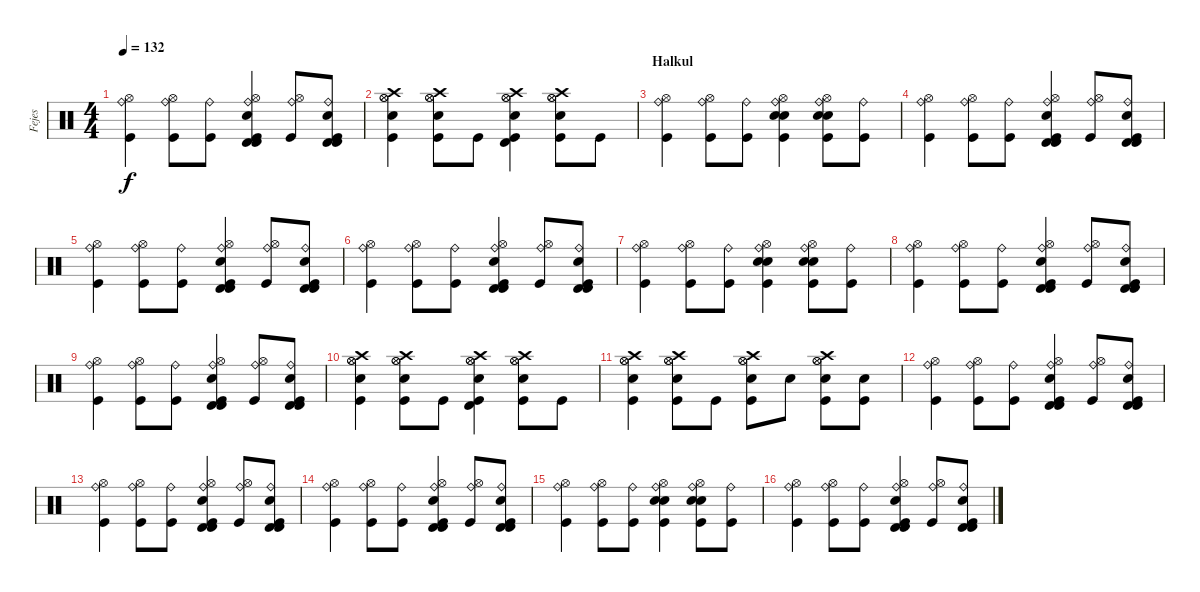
\track ("Fejes" "Fejes") {instrument percussion}
\staff {score}
\articulation defaults
\ts (4 4)
\tempo 132
\clef neutral
\ks c
("Ride (bell)" "Hi-Hat (open)" "Kick (hit)").4{dy f} ("Ride (bell)" "Hi-Hat (open)" "Kick (hit)").8 ("Ride (bell)" "Kick (hit)").8 ("Ride (bell)" "Hi-Hat (open)" "Snare (hit) 2" "Timbale high (hit)" "Timbale high (hit)" "Kick (hit)").4 ("Ride (bell)" "Hi-Hat (open)" "Kick (hit)").8 ("Ride (bell)" "Snare (hit) 2" "Timbale high (hit)" "Timbale high (hit)" "Kick (hit)").8 |
("Hi-Hat (open)" "Hi-Hat (open)" "Snare (hit) 2" "Crash high (hit)" "Kick (hit)").4 ("Hi-Hat (open)" "Hi-Hat (open)" "Snare (hit) 2" "Crash high (hit)" "Kick (hit)").8 "Kick (hit)".8 ("Hi-Hat (open)" "Hi-Hat (open)" "Snare (hit) 2" "Crash high (hit)" "Timbale high (hit)" "Kick (hit)").4 ("Hi-Hat (open)" "Hi-Hat (open)" "Snare (hit) 2" "Crash high (hit)" "Kick (hit)").8 "Kick (hit)".8 |
\section ("" "Halkul")
("Ride (bell)" "Hi-Hat (open)" "Kick (hit)").4{volume 11} ("Ride (bell)" "Hi-Hat (open)" "Kick (hit)").8 ("Ride (bell)" "Kick (hit)").8 ("Ride (bell)" "Hi-Hat (open)" "Snare (hit) 2" "Snare (hit) 2" "Kick (hit)").4 ("Ride (bell)" "Hi-Hat (open)" "Snare (hit) 2" "Snare (hit) 2" "Kick (hit)").8 ("Ride (bell)" "Kick (hit)").8 |
("Ride (bell)" "Hi-Hat (open)" "Kick (hit)").4 ("Ride (bell)" "Hi-Hat (open)" "Kick (hit)").8 ("Ride (bell)" "Kick (hit)").8 ("Ride (bell)" "Hi-Hat (open)" "Snare (hit) 2" "Timbale high (hit)" "Timbale high (hit)" "Kick (hit)").4 ("Ride (bell)" "Hi-Hat (open)" "Kick (hit)").8 ("Ride (bell)" "Snare (hit) 2" "Timbale high (hit)" "Timbale high (hit)" "Kick (hit)").8 |
("Ride (bell)" "Hi-Hat (open)" "Kick (hit)").4 ("Ride (bell)" "Hi-Hat (open)" "Kick (hit)").8 ("Ride (bell)" "Kick (hit)").8 ("Ride (bell)" "Hi-Hat (open)" "Snare (hit) 2" "Timbale high (hit)" "Timbale high (hit)" "Kick (hit)").4 ("Ride (bell)" "Hi-Hat (open)" "Kick (hit)").8 ("Ride (bell)" "Snare (hit) 2" "Timbale high (hit)" "Timbale high (hit)" "Kick (hit)").8 |
("Ride (bell)" "Hi-Hat (open)" "Kick (hit)").4{volume 8} ("Ride (bell)" "Hi-Hat (open)" "Kick (hit)").8 ("Ride (bell)" "Kick (hit)").8 ("Ride (bell)" "Hi-Hat (open)" "Snare (hit) 2" "Timbale high (hit)" "Timbale high (hit)" "Kick (hit)").4 ("Ride (bell)" "Hi-Hat (open)" "Kick (hit)").8 ("Ride (bell)" "Snare (hit) 2" "Timbale high (hit)" "Timbale high (hit)" "Kick (hit)").8 |
("Ride (bell)" "Hi-Hat (open)" "Kick (hit)").4 ("Ride (bell)" "Hi-Hat (open)" "Kick (hit)").8 ("Ride (bell)" "Kick (hit)").8 ("Ride (bell)" "Hi-Hat (open)" "Snare (hit) 2" "Snare (hit) 2" "Kick (hit)").4 ("Ride (bell)" "Hi-Hat (open)" "Snare (hit) 2" "Snare (hit) 2" "Kick (hit)").8 ("Ride (bell)" "Kick (hit)").8 |
("Ride (bell)" "Hi-Hat (open)" "Kick (hit)").4 ("Ride (bell)" "Hi-Hat (open)" "Kick (hit)").8 ("Ride (bell)" "Kick (hit)").8 ("Ride (bell)" "Hi-Hat (open)" "Snare (hit) 2" "Timbale high (hit)" "Timbale high (hit)" "Kick (hit)").4 ("Ride (bell)" "Hi-Hat (open)" "Kick (hit)").8 ("Ride (bell)" "Snare (hit) 2" "Timbale high (hit)" "Timbale high (hit)" "Kick (hit)").8 |
("Ride (bell)" "Hi-Hat (open)" "Kick (hit)").4{volume 7} ("Ride (bell)" "Hi-Hat (open)" "Kick (hit)").8 ("Ride (bell)" "Kick (hit)").8 ("Ride (bell)" "Hi-Hat (open)" "Snare (hit) 2" "Timbale high (hit)" "Timbale high (hit)" "Kick (hit)").4 ("Ride (bell)" "Hi-Hat (open)" "Kick (hit)").8 ("Ride (bell)" "Snare (hit) 2" "Timbale high (hit)" "Timbale high (hit)" "Kick (hit)").8 |
("Hi-Hat (open)" "Hi-Hat (open)" "Snare (hit) 2" "Crash high (hit)" "Kick (hit)").4 ("Hi-Hat (open)" "Hi-Hat (open)" "Snare (hit) 2" "Crash high (hit)" "Kick (hit)").8 "Kick (hit)".8 ("Hi-Hat (open)" "Hi-Hat (open)" "Snare (hit) 2" "Crash high (hit)" "Timbale high (hit)" "Kick (hit)").4 ("Hi-Hat (open)" "Hi-Hat (open)" "Snare (hit) 2" "Crash high (hit)" "Kick (hit)").8 "Kick (hit)".8 |
("Hi-Hat (open)" "Hi-Hat (open)" "Snare (hit) 2" "Crash high (hit)" "Kick (hit)").4 ("Hi-Hat (open)" "Hi-Hat (open)" "Snare (hit) 2" "Crash high (hit)" "Kick (hit)").8 "Kick (hit)".8 ("Hi-Hat (open)" "Hi-Hat (open)" "Snare (hit) 2" "Crash high (hit)" "Kick (hit)").8 "Snare (hit) 2".8 ("Hi-Hat (open)" "Hi-Hat (open)" "Snare (hit) 2" "Crash high (hit)" "Kick (hit)").8 ("Snare (hit) 2" "Kick (hit)").8 |
("Ride (bell)" "Hi-Hat (open)" "Kick (hit)").4{volume 3} ("Ride (bell)" "Hi-Hat (open)" "Kick (hit)").8 ("Ride (bell)" "Kick (hit)").8 ("Ride (bell)" "Hi-Hat (open)" "Snare (hit) 2" "Timbale high (hit)" "Timbale high (hit)" "Kick (hit)").4 ("Ride (bell)" "Hi-Hat (open)" "Kick (hit)").8 ("Ride (bell)" "Snare (hit) 2" "Timbale high (hit)" "Timbale high (hit)" "Kick (hit)").8 |
("Ride (bell)" "Hi-Hat (open)" "Kick (hit)").4 ("Ride (bell)" "Hi-Hat (open)" "Kick (hit)").8 ("Ride (bell)" "Kick (hit)").8 ("Ride (bell)" "Hi-Hat (open)" "Snare (hit) 2" "Timbale high (hit)" "Timbale high (hit)" "Kick (hit)").4 ("Ride (bell)" "Hi-Hat (open)" "Kick (hit)").8 ("Ride (bell)" "Snare (hit) 2" "Timbale high (hit)" "Timbale high (hit)" "Kick (hit)").8 |
("Ride (bell)" "Hi-Hat (open)" "Kick (hit)").4 ("Ride (bell)" "Hi-Hat (open)" "Kick (hit)").8 ("Ride (bell)" "Kick (hit)").8 ("Ride (bell)" "Hi-Hat (open)" "Snare (hit) 2" "Timbale high (hit)" "Timbale high (hit)" "Kick (hit)").4 ("Ride (bell)" "Hi-Hat (open)" "Kick (hit)").8 ("Ride (bell)" "Snare (hit) 2" "Timbale high (hit)" "Timbale high (hit)" "Kick (hit)").8 |
("Ride (bell)" "Hi-Hat (open)" "Kick (hit)").4{volume 0} ("Ride (bell)" "Hi-Hat (open)" "Kick (hit)").8 ("Ride (bell)" "Kick (hit)").8 ("Ride (bell)" "Hi-Hat (open)" "Snare (hit) 2" "Snare (hit) 2" "Kick (hit)").4 ("Ride (bell)" "Hi-Hat (open)" "Snare (hit) 2" "Snare (hit) 2" "Kick (hit)").8 ("Ride (bell)" "Kick (hit)").8 |
("Ride (bell)" "Hi-Hat (open)" "Kick (hit)").4 ("Ride (bell)" "Hi-Hat (open)" "Kick (hit)").8 ("Ride (bell)" "Kick (hit)").8 ("Ride (bell)" "Hi-Hat (open)" "Snare (hit) 2" "Timbale high (hit)" "Timbale high (hit)" "Kick (hit)").4 ("Ride (bell)" "Hi-Hat (open)" "Kick (hit)").8 ("Ride (bell)" "Snare (hit) 2" "Timbale high (hit)" "Timbale high (hit)" "Kick (hit)").8
